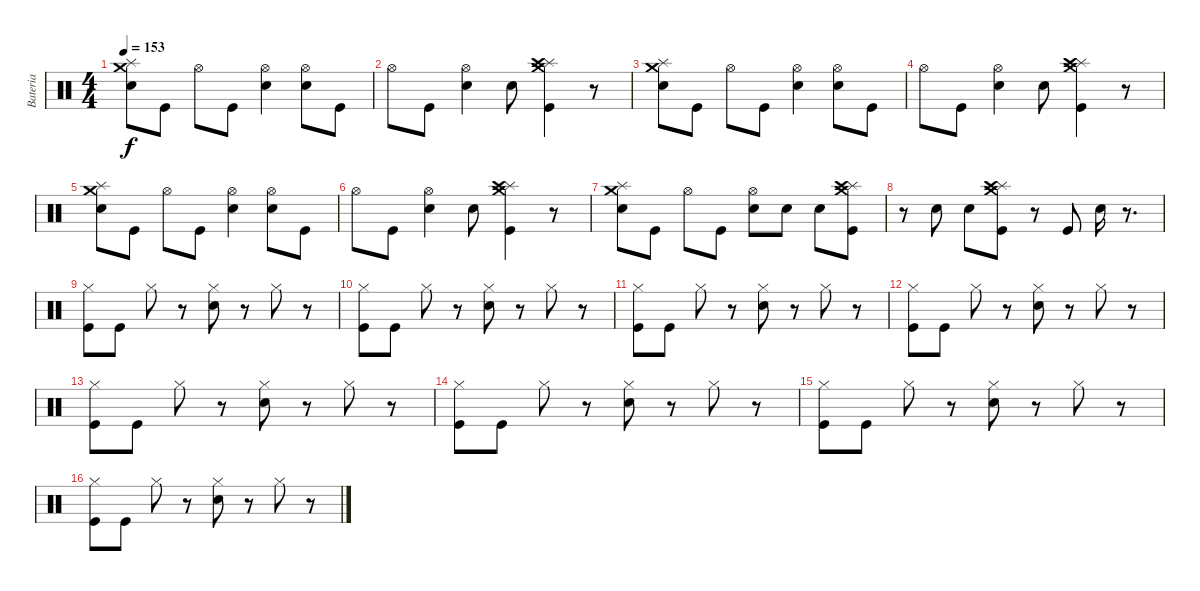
\track ("Bateria" "Bateria") {instrument percussion}
\staff {score}
\articulation defaults
\ts (4 4)
\tempo 153
\clef neutral
\ks c
("Snare (hit) 2" "Crash medium (hit)" "Splash (hit)").8{dy f} "Kick (hit)".8 "Hi-Hat (open)".8 "Kick (hit)".8 ("Hi-Hat (open)" "Snare (hit) 2").4 ("Hi-Hat (open)" "Snare (hit) 2").8 "Kick (hit)".8 |
"Hi-Hat (open)".8 "Kick (hit)".8 ("Snare (hit) 2" "Hi-Hat (open)").4 "Snare (hit) 2".8 ("Crash medium (hit)" "Splash (hit)" "Crash high (hit)" "Kick (hit)").4 r.8 |
("Snare (hit) 2" "Crash medium (hit)" "Splash (hit)").8 "Kick (hit)".8 "Hi-Hat (open)".8 "Kick (hit)".8 ("Hi-Hat (open)" "Snare (hit) 2").4 ("Hi-Hat (open)" "Snare (hit) 2").8 "Kick (hit)".8 |
"Hi-Hat (open)".8 "Kick (hit)".8 ("Snare (hit) 2" "Hi-Hat (open)").4 "Snare (hit) 2".8 ("Crash medium (hit)" "Splash (hit)" "Crash high (hit)" "Kick (hit)").4 r.8 |
("Snare (hit) 2" "Crash medium (hit)" "Splash (hit)").8 "Kick (hit)".8 "Hi-Hat (open)".8 "Kick (hit)".8 ("Hi-Hat (open)" "Snare (hit) 2").4 ("Hi-Hat (open)" "Snare (hit) 2").8 "Kick (hit)".8 |
"Hi-Hat (open)".8 "Kick (hit)".8 ("Snare (hit) 2" "Hi-Hat (open)").4 "Snare (hit) 2".8 ("Crash medium (hit)" "Splash (hit)" "Crash high (hit)" "Kick (hit)").4 r.8 |
("Snare (hit) 2" "Crash medium (hit)" "Splash (hit)").8 "Kick (hit)".8 "Hi-Hat (open)".8 "Kick (hit)".8 ("Hi-Hat (open)" "Snare (hit) 2").8 "Snare (hit) 2".8 "Snare (hit) 2".8 ("Crash medium (hit)" "Splash (hit)" "Crash high (hit)" "Kick (hit)").8 |
r.8 "Snare (hit) 2".8 "Snare (hit) 2".8 ("Kick (hit)" "Crash medium (hit)" "Splash (hit)" "Crash high (hit)").8 r.8 "Kick (hit)".8 "Snare (hit) 2".16 r.8{d} |
("Hi-Hat (closed)" "Kick (hit)").8 "Kick (hit)".8 "Hi-Hat (closed)".8 r.8 ("Hi-Hat (closed)" "Snare (hit) 2").8 r.8 "Hi-Hat (closed)".8 r.8 |
("Hi-Hat (closed)" "Kick (hit)").8 "Kick (hit)".8 "Hi-Hat (closed)".8 r.8 ("Hi-Hat (closed)" "Snare (hit) 2").8 r.8 "Hi-Hat (closed)".8 r.8 |
("Hi-Hat (closed)" "Kick (hit)").8 "Kick (hit)".8 "Hi-Hat (closed)".8 r.8 ("Hi-Hat (closed)" "Snare (hit) 2").8 r.8 "Hi-Hat (closed)".8 r.8 |
("Hi-Hat (closed)" "Kick (hit)").8 "Kick (hit)".8 "Hi-Hat (closed)".8 r.8 ("Hi-Hat (closed)" "Snare (hit) 2").8 r.8 "Hi-Hat (closed)".8 r.8 |
("Hi-Hat (closed)" "Kick (hit)").8 "Kick (hit)".8 "Hi-Hat (closed)".8 r.8 ("Hi-Hat (closed)" "Snare (hit) 2").8 r.8 "Hi-Hat (closed)".8 r.8 |
("Hi-Hat (closed)" "Kick (hit)").8 "Kick (hit)".8 "Hi-Hat (closed)".8 r.8 ("Hi-Hat (closed)" "Snare (hit) 2").8 r.8 "Hi-Hat (closed)".8 r.8 |
("Hi-Hat (closed)" "Kick (hit)").8 "Kick (hit)".8 "Hi-Hat (closed)".8 r.8 ("Hi-Hat (closed)" "Snare (hit) 2").8 r.8 "Hi-Hat (closed)".8 r.8 |
("Hi-Hat (closed)" "Kick (hit)").8 "Kick (hit)".8 "Hi-Hat (closed)".8 r.8 ("Hi-Hat (closed)" "Snare (hit) 2").8 r.8 "Hi-Hat (closed)".8 r.8
